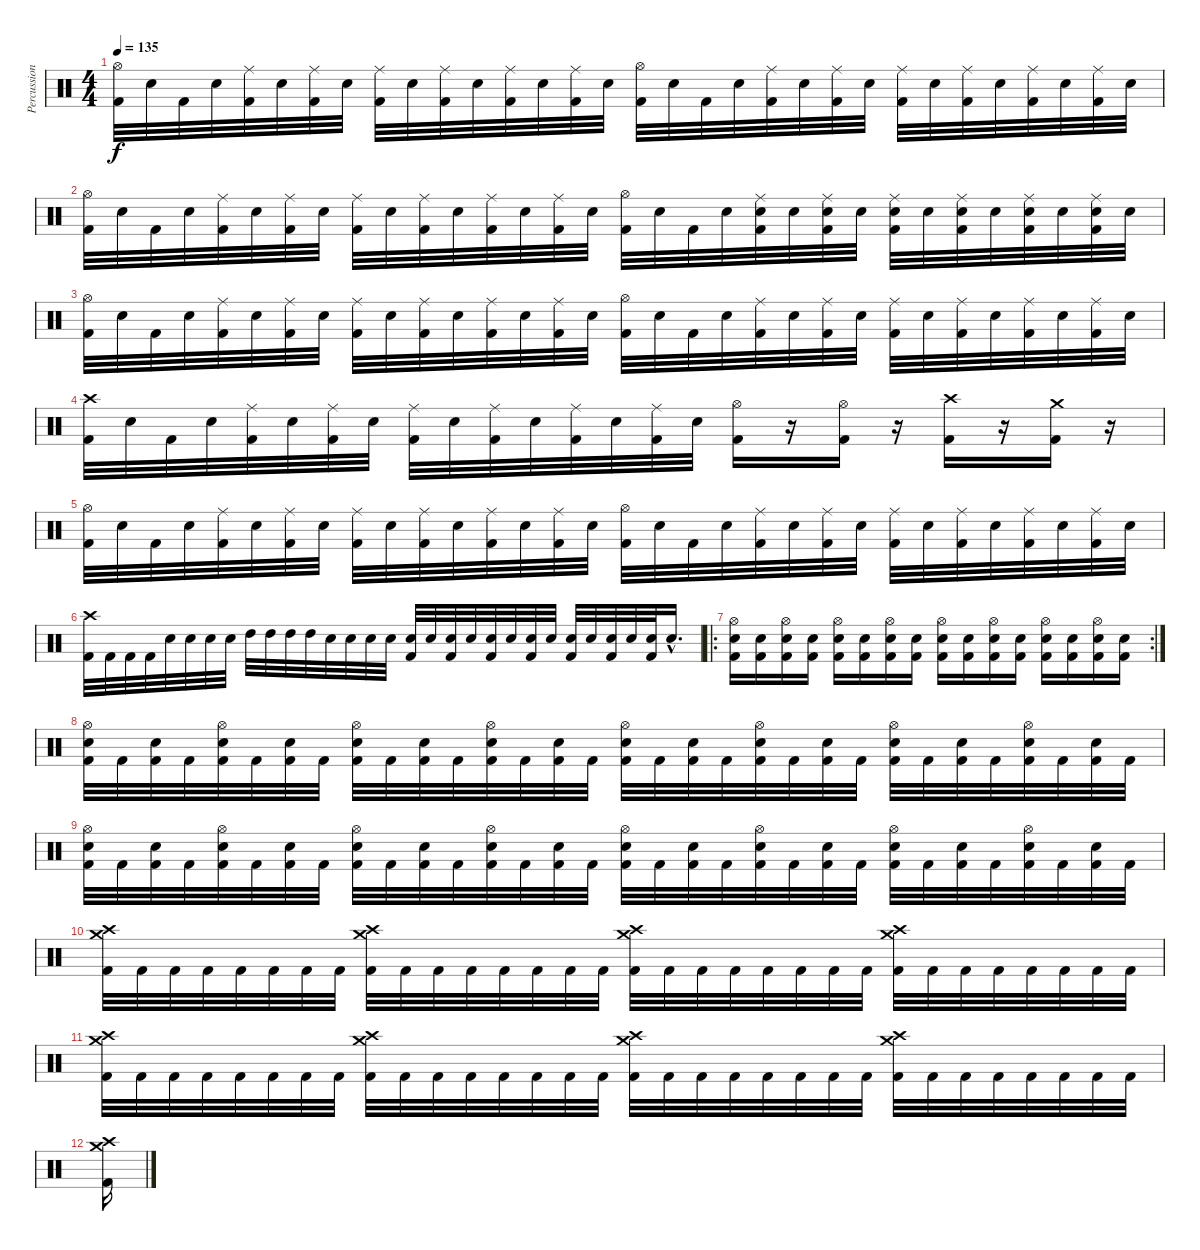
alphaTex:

\track ("Percussion" "Percussion") {instrument percussion}
\staff {score}
\articulation defaults
\ts (4 4)
\tempo 135
\clef neutral
\ks c
("Hi-Hat (open)" "Kick (hit) 2").32{dy f} "Electric Snare (hit)".32 "Kick (hit) 2".32 "Electric Snare (hit)".32 ("Ride (middle)" "Kick (hit) 2").32 "Electric Snare (hit)".32 ("Ride (middle)" "Kick (hit) 2").32 "Electric Snare (hit)".32 ("Ride (middle)" "Kick (hit) 2").32 "Electric Snare (hit)".32 ("Ride (middle)" "Kick (hit) 2").32 "Electric Snare (hit)".32 ("Ride (middle)" "Kick (hit) 2").32 "Electric Snare (hit)".32 ("Ride (middle)" "Kick (hit) 2").32 "Electric Snare (hit)".32 ("Hi-Hat (open)" "Kick (hit) 2").32 "Electric Snare (hit)".32 "Kick (hit) 2".32 "Electric Snare (hit)".32 ("Ride (middle)" "Kick (hit) 2").32 "Electric Snare (hit)".32 ("Ride (middle)" "Kick (hit) 2").32 "Electric Snare (hit)".32 ("Ride (middle)" "Kick (hit) 2").32 "Electric Snare (hit)".32 ("Ride (middle)" "Kick (hit) 2").32 "Electric Snare (hit)".32 ("Ride (middle)" "Kick (hit) 2").32 "Electric Snare (hit)".32 ("Ride (middle)" "Kick (hit) 2").32 "Electric Snare (hit)".32 |
("Hi-Hat (open)" "Kick (hit) 2").32 "Electric Snare (hit)".32 "Kick (hit) 2".32 "Electric Snare (hit)".32 ("Ride (middle)" "Kick (hit) 2").32 "Electric Snare (hit)".32 ("Ride (middle)" "Kick (hit) 2").32 "Electric Snare (hit)".32 ("Ride (middle)" "Kick (hit) 2").32 "Electric Snare (hit)".32 ("Ride (middle)" "Kick (hit) 2").32 "Electric Snare (hit)".32 ("Ride (middle)" "Kick (hit) 2").32 "Electric Snare (hit)".32 ("Ride (middle)" "Kick (hit) 2").32 "Electric Snare (hit)".32 ("Hi-Hat (open)" "Kick (hit) 2").32 "Electric Snare (hit)".32 "Kick (hit) 2".32 "Electric Snare (hit)".32 ("Ride (middle)" "Electric Snare (hit)" "Kick (hit) 2").32 "Electric Snare (hit)".32 ("Ride (middle)" "Electric Snare (hit)" "Kick (hit) 2").32 "Electric Snare (hit)".32 ("Ride (middle)" "Electric Snare (hit)" "Kick (hit) 2").32 "Electric Snare (hit)".32 ("Ride (middle)" "Electric Snare (hit)" "Kick (hit) 2").32 "Electric Snare (hit)".32 ("Ride (middle)" "Electric Snare (hit)" "Kick (hit) 2").32 "Electric Snare (hit)".32 ("Ride (middle)" "Electric Snare (hit)" "Kick (hit) 2").32 "Electric Snare (hit)".32 |
("Hi-Hat (open)" "Kick (hit) 2").32 "Electric Snare (hit)".32 "Kick (hit) 2".32 "Electric Snare (hit)".32 ("Ride (middle)" "Kick (hit) 2").32 "Electric Snare (hit)".32 ("Ride (middle)" "Kick (hit) 2").32 "Electric Snare (hit)".32 ("Ride (middle)" "Kick (hit) 2").32 "Electric Snare (hit)".32 ("Ride (middle)" "Kick (hit) 2").32 "Electric Snare (hit)".32 ("Ride (middle)" "Kick (hit) 2").32 "Electric Snare (hit)".32 ("Ride (middle)" "Kick (hit) 2").32 "Electric Snare (hit)".32 ("Hi-Hat (open)" "Kick (hit) 2").32 "Electric Snare (hit)".32 "Kick (hit) 2".32 "Electric Snare (hit)".32 ("Ride (middle)" "Kick (hit) 2").32 "Electric Snare (hit)".32 ("Ride (middle)" "Kick (hit) 2").32 "Electric Snare (hit)".32 ("Ride (middle)" "Kick (hit) 2").32 "Electric Snare (hit)".32 ("Ride (middle)" "Kick (hit) 2").32 "Electric Snare (hit)".32 ("Ride (middle)" "Kick (hit) 2").32 "Electric Snare (hit)".32 ("Ride (middle)" "Kick (hit) 2").32 "Electric Snare (hit)".32 |
("Crash high (hit)" "Kick (hit) 2").32 "Electric Snare (hit)".32 "Kick (hit) 2".32 "Electric Snare (hit)".32 ("Ride (middle)" "Kick (hit) 2").32 "Electric Snare (hit)".32 ("Ride (middle)" "Kick (hit) 2").32 "Electric Snare (hit)".32 ("Ride (middle)" "Kick (hit) 2").32 "Electric Snare (hit)".32 ("Ride (middle)" "Kick (hit) 2").32 "Electric Snare (hit)".32 ("Ride (middle)" "Kick (hit) 2").32 "Electric Snare (hit)".32 ("Ride (middle)" "Kick (hit) 2").32 "Electric Snare (hit)".32 ("Hi-Hat (open)" "Kick (hit) 2").16 r.16 ("Hi-Hat (open)" "Kick (hit) 2").16 r.16 ("Crash high (hit)" "Kick (hit) 2").16 r.16 ("Crash medium (hit)" "Kick (hit) 2").16 r.16 |
("Hi-Hat (open)" "Kick (hit) 2").32 "Electric Snare (hit)".32 "Kick (hit) 2".32 "Electric Snare (hit)".32 ("Ride (middle)" "Kick (hit) 2").32 "Electric Snare (hit)".32 ("Ride (middle)" "Kick (hit) 2").32 "Electric Snare (hit)".32 ("Ride (middle)" "Kick (hit) 2").32 "Electric Snare (hit)".32 ("Ride (middle)" "Kick (hit) 2").32 "Electric Snare (hit)".32 ("Ride (middle)" "Kick (hit) 2").32 "Electric Snare (hit)".32 ("Ride (middle)" "Kick (hit) 2").32 "Electric Snare (hit)".32 ("Hi-Hat (open)" "Kick (hit) 2").32 "Electric Snare (hit)".32 "Kick (hit) 2".32 "Electric Snare (hit)".32 ("Ride (middle)" "Kick (hit) 2").32 "Electric Snare (hit)".32 ("Ride (middle)" "Kick (hit) 2").32 "Electric Snare (hit)".32 ("Ride (middle)" "Kick (hit) 2").32 "Electric Snare (hit)".32 ("Ride (middle)" "Kick (hit) 2").32 "Electric Snare (hit)".32 ("Ride (middle)" "Kick (hit) 2").32 "Electric Snare (hit)".32 ("Ride (middle)" "Kick (hit) 2").32 "Electric Snare (hit)".32 |
("Crash high (hit)" "Kick (hit) 2").32 "Kick (hit) 2".32 "Kick (hit) 2".32 "Kick (hit) 2".32 "Electric Snare (hit)".32 "Electric Snare (hit)".32 "Electric Snare (hit)".32 "Electric Snare (hit)".32 "High Tom (hit)".32 "High Tom (hit)".32 "High Tom (hit)".32 "High Tom (hit)".32 "Electric Snare (hit)".32 "Electric Snare (hit)".32 "Electric Snare (hit)".32 "Electric Snare (hit)".32 ("Electric Snare (hit)" "Kick (hit) 2").32 "Electric Snare (hit)".32 ("Electric Snare (hit)" "Kick (hit) 2").32 "Electric Snare (hit)".32 ("Electric Snare (hit)" "Kick (hit) 2").32 "Electric Snare (hit)".32 ("Electric Snare (hit)" "Kick (hit) 2").32 "Electric Snare (hit)".32 ("Electric Snare (hit)" "Kick (hit) 2").32 "Electric Snare (hit)".32 ("Electric Snare (hit)" "Kick (hit) 2").32 "Electric Snare (hit)".32 ("Electric Snare (hit)" "Kick (hit) 2").32 "Electric Snare (hit)"{hac}.16{d} |
\ro
\rc 2
("Hi-Hat (open)" "Electric Snare (hit)" "Kick (hit) 2").16 ("Electric Snare (hit)" "Kick (hit) 2").16 ("Hi-Hat (open)" "Electric Snare (hit)" "Kick (hit) 2").16 ("Electric Snare (hit)" "Kick (hit) 2").16 ("Hi-Hat (open)" "Electric Snare (hit)" "Kick (hit) 2").16 ("Electric Snare (hit)" "Kick (hit) 2").16 ("Hi-Hat (open)" "Electric Snare (hit)" "Kick (hit) 2").16 ("Electric Snare (hit)" "Kick (hit) 2").16 ("Hi-Hat (open)" "Electric Snare (hit)" "Kick (hit) 2").16 ("Electric Snare (hit)" "Kick (hit) 2").16 ("Hi-Hat (open)" "Electric Snare (hit)" "Kick (hit) 2").16 ("Electric Snare (hit)" "Kick (hit) 2").16 ("Hi-Hat (open)" "Electric Snare (hit)" "Kick (hit) 2").16 ("Electric Snare (hit)" "Kick (hit) 2").16 ("Hi-Hat (open)" "Electric Snare (hit)" "Kick (hit) 2").16 ("Electric Snare (hit)" "Kick (hit) 2").16 |
("Hi-Hat (open)" "Electric Snare (hit)" "Kick (hit) 2").32 "Kick (hit) 2".32 ("Electric Snare (hit)" "Kick (hit) 2").32 "Kick (hit) 2".32 ("Hi-Hat (open)" "Electric Snare (hit)" "Kick (hit) 2").32 "Kick (hit) 2".32 ("Electric Snare (hit)" "Kick (hit) 2").32 "Kick (hit) 2".32 ("Hi-Hat (open)" "Electric Snare (hit)" "Kick (hit) 2").32 "Kick (hit) 2".32 ("Electric Snare (hit)" "Kick (hit) 2").32 "Kick (hit) 2".32 ("Hi-Hat (open)" "Electric Snare (hit)" "Kick (hit) 2").32 "Kick (hit) 2".32 ("Electric Snare (hit)" "Kick (hit) 2").32 "Kick (hit) 2".32 ("Hi-Hat (open)" "Electric Snare (hit)" "Kick (hit) 2").32 "Kick (hit) 2".32 ("Electric Snare (hit)" "Kick (hit) 2").32 "Kick (hit) 2".32 ("Hi-Hat (open)" "Electric Snare (hit)" "Kick (hit) 2").32 "Kick (hit) 2".32 ("Electric Snare (hit)" "Kick (hit) 2").32 "Kick (hit) 2".32 ("Hi-Hat (open)" "Electric Snare (hit)" "Kick (hit) 2").32 "Kick (hit) 2".32 ("Electric Snare (hit)" "Kick (hit) 2").32 "Kick (hit) 2".32 ("Hi-Hat (open)" "Electric Snare (hit)" "Kick (hit) 2").32 "Kick (hit) 2".32 ("Electric Snare (hit)" "Kick (hit) 2").32 "Kick (hit) 2".32 |
("Hi-Hat (open)" "Electric Snare (hit)" "Kick (hit) 2").32 "Kick (hit) 2".32 ("Electric Snare (hit)" "Kick (hit) 2").32 "Kick (hit) 2".32 ("Hi-Hat (open)" "Electric Snare (hit)" "Kick (hit) 2").32 "Kick (hit) 2".32 ("Electric Snare (hit)" "Kick (hit) 2").32 "Kick (hit) 2".32 ("Hi-Hat (open)" "Electric Snare (hit)" "Kick (hit) 2").32 "Kick (hit) 2".32 ("Electric Snare (hit)" "Kick (hit) 2").32 "Kick (hit) 2".32 ("Hi-Hat (open)" "Electric Snare (hit)" "Kick (hit) 2").32 "Kick (hit) 2".32 ("Electric Snare (hit)" "Kick (hit) 2").32 "Kick (hit) 2".32 ("Hi-Hat (open)" "Electric Snare (hit)" "Kick (hit) 2").32 "Kick (hit) 2".32 ("Electric Snare (hit)" "Kick (hit) 2").32 "Kick (hit) 2".32 ("Hi-Hat (open)" "Electric Snare (hit)" "Kick (hit) 2").32 "Kick (hit) 2".32 ("Electric Snare (hit)" "Kick (hit) 2").32 "Kick (hit) 2".32 ("Hi-Hat (open)" "Electric Snare (hit)" "Kick (hit) 2").32 "Kick (hit) 2".32 ("Electric Snare (hit)" "Kick (hit) 2").32 "Kick (hit) 2".32 ("Hi-Hat (open)" "Electric Snare (hit)" "Kick (hit) 2").32 "Kick (hit) 2".32 ("Electric Snare (hit)" "Kick (hit) 2").32 "Kick (hit) 2".32 |
("Crash high (hit)" "Crash medium (hit)" "Kick (hit) 2").32 "Kick (hit) 2".32 "Kick (hit) 2".32 "Kick (hit) 2".32 "Kick (hit) 2".32 "Kick (hit) 2".32 "Kick (hit) 2".32 "Kick (hit) 2".32 ("Crash high (hit)" "Crash medium (hit)" "Kick (hit) 2").32 "Kick (hit) 2".32 "Kick (hit) 2".32 "Kick (hit) 2".32 "Kick (hit) 2".32 "Kick (hit) 2".32 "Kick (hit) 2".32 "Kick (hit) 2".32 ("Crash high (hit)" "Crash medium (hit)" "Kick (hit) 2").32 "Kick (hit) 2".32 "Kick (hit) 2".32 "Kick (hit) 2".32 "Kick (hit) 2".32 "Kick (hit) 2".32 "Kick (hit) 2".32 "Kick (hit) 2".32 ("Crash high (hit)" "Crash medium (hit)" "Kick (hit) 2").32 "Kick (hit) 2".32 "Kick (hit) 2".32 "Kick (hit) 2".32 "Kick (hit) 2".32 "Kick (hit) 2".32 "Kick (hit) 2".32 "Kick (hit) 2".32 |
("Crash high (hit)" "Crash medium (hit)" "Kick (hit) 2").32 "Kick (hit) 2".32 "Kick (hit) 2".32 "Kick (hit) 2".32 "Kick (hit) 2".32 "Kick (hit) 2".32 "Kick (hit) 2".32 "Kick (hit) 2".32 ("Crash high (hit)" "Crash medium (hit)" "Kick (hit) 2").32 "Kick (hit) 2".32 "Kick (hit) 2".32 "Kick (hit) 2".32 "Kick (hit) 2".32 "Kick (hit) 2".32 "Kick (hit) 2".32 "Kick (hit) 2".32 ("Crash high (hit)" "Crash medium (hit)" "Kick (hit) 2").32 "Kick (hit) 2".32 "Kick (hit) 2".32 "Kick (hit) 2".32 "Kick (hit) 2".32 "Kick (hit) 2".32 "Kick (hit) 2".32 "Kick (hit) 2".32 ("Crash high (hit)" "Crash medium (hit)" "Kick (hit) 2").32 "Kick (hit) 2".32 "Kick (hit) 2".32 "Kick (hit) 2".32 "Kick (hit) 2".32 "Kick (hit) 2".32 "Kick (hit) 2".32 "Kick (hit) 2".32 |
("Crash medium (hit)" "Crash high (hit)" "Kick (hit) 2").16
